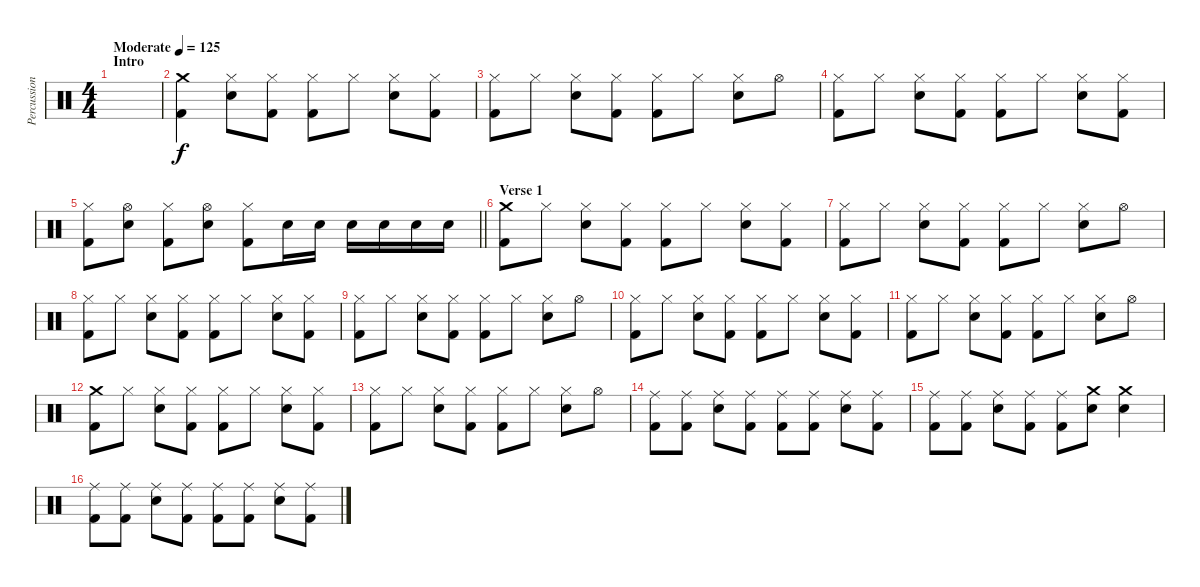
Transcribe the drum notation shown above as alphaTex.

\track ("Percussion" "Percussion") {instrument percussion}
\staff {score}
\articulation defaults
\ts (4 4)
\section ("" "Intro")
\tempo (125 "Moderate")
\clef neutral
\ks c
|
("Crash medium (hit)" "Kick (hit) 2").4 ("Hi-Hat (closed)" "Electric Snare (hit)").8 ("Hi-Hat (closed)" "Kick (hit) 2").8 ("Hi-Hat (closed)" "Kick (hit) 2").8 "Hi-Hat (closed)".8 ("Hi-Hat (closed)" "Electric Snare (hit)").8 ("Hi-Hat (closed)" "Kick (hit) 2").8 |
("Hi-Hat (closed)" "Kick (hit) 2").8 "Hi-Hat (closed)".8 ("Hi-Hat (closed)" "Electric Snare (hit)").8 ("Hi-Hat (closed)" "Kick (hit) 2").8 ("Hi-Hat (closed)" "Kick (hit) 2").8 "Hi-Hat (closed)".8 ("Hi-Hat (closed)" "Electric Snare (hit)").8 "Hi-Hat (open)".8 |
("Hi-Hat (closed)" "Kick (hit) 2").8 "Hi-Hat (closed)".8 ("Hi-Hat (closed)" "Electric Snare (hit)").8 ("Hi-Hat (closed)" "Kick (hit) 2").8 ("Hi-Hat (closed)" "Kick (hit) 2").8 "Hi-Hat (closed)".8 ("Hi-Hat (closed)" "Electric Snare (hit)").8 ("Hi-Hat (closed)" "Kick (hit) 2").8 |
\barLineRight lightlight
("Hi-Hat (closed)" "Kick (hit) 2").8 ("Hi-Hat (open)" "Electric Snare (hit)").8 ("Hi-Hat (closed)" "Kick (hit) 2").8 ("Hi-Hat (open)" "Electric Snare (hit)").8 ("Hi-Hat (closed)" "Kick (hit) 2").8 "Electric Snare (hit)".16 "Electric Snare (hit)".16 "Electric Snare (hit)".16 "Electric Snare (hit)".16 "Electric Snare (hit)".16 "Electric Snare (hit)".16 |
\section ("" "Verse 1")
("Crash medium (hit)" "Kick (hit) 2").8 "Hi-Hat (closed)".8 ("Hi-Hat (closed)" "Electric Snare (hit)").8 ("Hi-Hat (closed)" "Kick (hit) 2").8 ("Hi-Hat (closed)" "Kick (hit) 2").8 "Hi-Hat (closed)".8 ("Hi-Hat (closed)" "Electric Snare (hit)").8 ("Hi-Hat (closed)" "Kick (hit) 2").8 |
("Hi-Hat (closed)" "Kick (hit) 2").8 "Hi-Hat (closed)".8 ("Hi-Hat (closed)" "Electric Snare (hit)").8 ("Hi-Hat (closed)" "Kick (hit) 2").8 ("Hi-Hat (closed)" "Kick (hit) 2").8 "Hi-Hat (closed)".8 ("Hi-Hat (closed)" "Electric Snare (hit)").8 "Hi-Hat (open)".8 |
("Hi-Hat (closed)" "Kick (hit) 2").8 "Hi-Hat (closed)".8 ("Hi-Hat (closed)" "Electric Snare (hit)").8 ("Hi-Hat (closed)" "Kick (hit) 2").8 ("Hi-Hat (closed)" "Kick (hit) 2").8 "Hi-Hat (closed)".8 ("Hi-Hat (closed)" "Electric Snare (hit)").8 ("Hi-Hat (closed)" "Kick (hit) 2").8 |
("Hi-Hat (closed)" "Kick (hit) 2").8 "Hi-Hat (closed)".8 ("Hi-Hat (closed)" "Electric Snare (hit)").8 ("Hi-Hat (closed)" "Kick (hit) 2").8 ("Hi-Hat (closed)" "Kick (hit) 2").8 "Hi-Hat (closed)".8 ("Hi-Hat (closed)" "Electric Snare (hit)").8 "Hi-Hat (open)".8 |
("Hi-Hat (closed)" "Kick (hit) 2").8 "Hi-Hat (closed)".8 ("Hi-Hat (closed)" "Electric Snare (hit)").8 ("Hi-Hat (closed)" "Kick (hit) 2").8 ("Hi-Hat (closed)" "Kick (hit) 2").8 "Hi-Hat (closed)".8 ("Hi-Hat (closed)" "Electric Snare (hit)").8 ("Hi-Hat (closed)" "Kick (hit) 2").8 |
("Hi-Hat (closed)" "Kick (hit) 2").8 "Hi-Hat (closed)".8 ("Hi-Hat (closed)" "Electric Snare (hit)").8 ("Hi-Hat (closed)" "Kick (hit) 2").8 ("Hi-Hat (closed)" "Kick (hit) 2").8 "Hi-Hat (closed)".8 ("Hi-Hat (closed)" "Electric Snare (hit)").8 "Hi-Hat (open)".8 |
("Crash medium (hit)" "Kick (hit) 2").8 "Hi-Hat (closed)".8 ("Hi-Hat (closed)" "Electric Snare (hit)").8 ("Hi-Hat (closed)" "Kick (hit) 2").8 ("Hi-Hat (closed)" "Kick (hit) 2").8 "Hi-Hat (closed)".8 ("Hi-Hat (closed)" "Electric Snare (hit)").8 ("Hi-Hat (closed)" "Kick (hit) 2").8 |
("Hi-Hat (closed)" "Kick (hit) 2").8 "Hi-Hat (closed)".8 ("Hi-Hat (closed)" "Electric Snare (hit)").8 ("Hi-Hat (closed)" "Kick (hit) 2").8 ("Hi-Hat (closed)" "Kick (hit) 2").8 "Hi-Hat (closed)".8 ("Hi-Hat (closed)" "Electric Snare (hit)").8 "Hi-Hat (open)".8 |
("Ride (middle)" "Kick (hit) 2").8 ("Ride (middle)" "Kick (hit) 2").8 ("Ride (middle)" "Electric Snare (hit)").8 ("Ride (middle)" "Kick (hit) 2").8 ("Ride (middle)" "Kick (hit) 2").8 ("Ride (middle)" "Kick (hit) 2").8 ("Ride (middle)" "Electric Snare (hit)").8 ("Ride (middle)" "Kick (hit) 2").8 |
("Ride (middle)" "Kick (hit) 2").8 ("Ride (middle)" "Kick (hit) 2").8 ("Ride (middle)" "Electric Snare (hit)").8 ("Ride (middle)" "Kick (hit) 2").8 ("Ride (middle)" "Kick (hit) 2").8 ("Crash medium (hit)" "Electric Snare (hit)").8 ("Crash medium (hit)" "Electric Snare (hit)").4 |
("Ride (middle)" "Kick (hit) 2").8 ("Ride (middle)" "Kick (hit) 2").8 ("Ride (middle)" "Electric Snare (hit)").8 ("Ride (middle)" "Kick (hit) 2").8 ("Ride (middle)" "Kick (hit) 2").8 ("Ride (middle)" "Kick (hit) 2").8 ("Ride (middle)" "Electric Snare (hit)").8 ("Ride (middle)" "Kick (hit) 2").8
